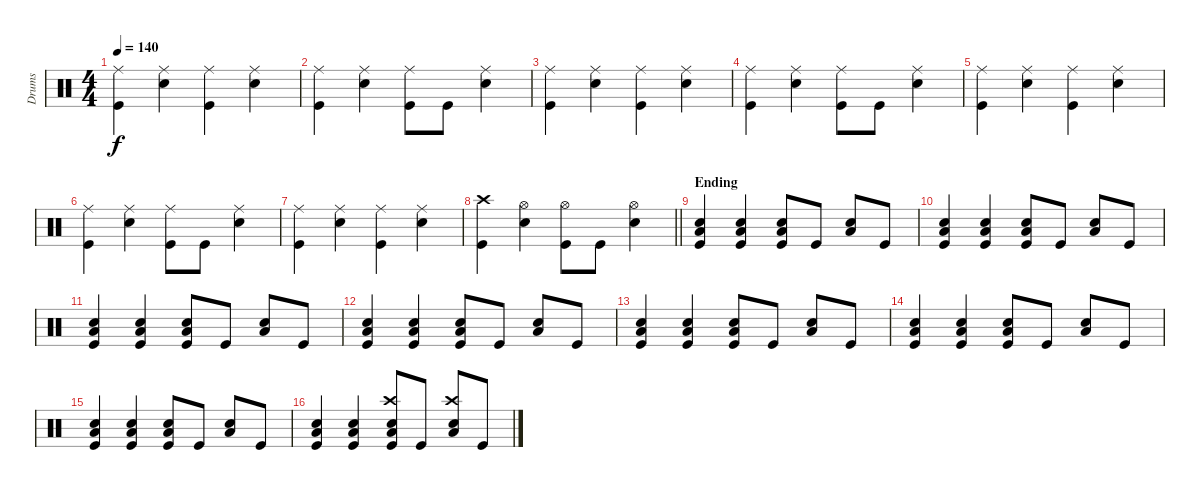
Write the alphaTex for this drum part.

\track ("Drums" "Drums") {instrument percussion}
\staff {score}
\articulation defaults
\ts (4 4)
\tempo 140
\clef neutral
\ks c
("Ride (middle)" "Kick (hit)").4{dy f} ("Ride (middle)" "Snare (hit) 2").4 ("Ride (middle)" "Kick (hit)").4 ("Ride (middle)" "Snare (hit) 2").4 |
("Ride (middle)" "Kick (hit)").4 ("Ride (middle)" "Snare (hit) 2").4 ("Ride (middle)" "Kick (hit)").8 "Kick (hit)".8 ("Ride (middle)" "Snare (hit) 2").4 |
("Ride (middle)" "Kick (hit)").4 ("Ride (middle)" "Snare (hit) 2").4 ("Ride (middle)" "Kick (hit)").4 ("Ride (middle)" "Snare (hit) 2").4 |
("Ride (middle)" "Kick (hit)").4 ("Ride (middle)" "Snare (hit) 2").4 ("Ride (middle)" "Kick (hit)").8 "Kick (hit)".8 ("Ride (middle)" "Snare (hit) 2").4 |
("Ride (middle)" "Kick (hit)").4 ("Ride (middle)" "Snare (hit) 2").4 ("Ride (middle)" "Kick (hit)").4 ("Ride (middle)" "Snare (hit) 2").4 |
("Ride (middle)" "Kick (hit)").4 ("Ride (middle)" "Snare (hit) 2").4 ("Ride (middle)" "Kick (hit)").8 "Kick (hit)".8 ("Ride (middle)" "Snare (hit) 2").4 |
("Ride (middle)" "Kick (hit)").4 ("Ride (middle)" "Snare (hit) 2").4 ("Ride (middle)" "Kick (hit)").4 ("Ride (middle)" "Snare (hit) 2").4 |
\barLineRight lightlight
("Crash high (hit)" "Kick (hit)").4 ("Hi-Hat (open)" "Snare (hit) 2").4 ("Hi-Hat (open)" "Kick (hit)").8 "Kick (hit)".8 ("Hi-Hat (open)" "Snare (hit) 2").4 |
\section ("" "Ending")
("Snare (hit) 2" "Low Tom (hit)" "Kick (hit)").4 ("Snare (hit) 2" "Low Tom (hit)" "Kick (hit)").4 ("Snare (hit) 2" "Low Tom (hit)" "Kick (hit)").8 "Kick (hit)".8 ("Snare (hit) 2" "Low Tom (hit)").8 "Kick (hit)".8 |
("Snare (hit) 2" "Low Tom (hit)" "Kick (hit)").4 ("Snare (hit) 2" "Low Tom (hit)" "Kick (hit)").4 ("Snare (hit) 2" "Low Tom (hit)" "Kick (hit)").8 "Kick (hit)".8 ("Snare (hit) 2" "Low Tom (hit)").8 "Kick (hit)".8 |
("Snare (hit) 2" "Low Tom (hit)" "Kick (hit)").4 ("Snare (hit) 2" "Low Tom (hit)" "Kick (hit)").4 ("Snare (hit) 2" "Low Tom (hit)" "Kick (hit)").8 "Kick (hit)".8 ("Snare (hit) 2" "Low Tom (hit)").8 "Kick (hit)".8 |
("Snare (hit) 2" "Low Tom (hit)" "Kick (hit)").4 ("Snare (hit) 2" "Low Tom (hit)" "Kick (hit)").4 ("Snare (hit) 2" "Low Tom (hit)" "Kick (hit)").8 "Kick (hit)".8 ("Snare (hit) 2" "Low Tom (hit)").8 "Kick (hit)".8 |
("Snare (hit) 2" "Low Tom (hit)" "Kick (hit)").4 ("Snare (hit) 2" "Low Tom (hit)" "Kick (hit)").4 ("Snare (hit) 2" "Low Tom (hit)" "Kick (hit)").8 "Kick (hit)".8 ("Snare (hit) 2" "Low Tom (hit)").8 "Kick (hit)".8 |
("Snare (hit) 2" "Low Tom (hit)" "Kick (hit)").4 ("Snare (hit) 2" "Low Tom (hit)" "Kick (hit)").4 ("Snare (hit) 2" "Low Tom (hit)" "Kick (hit)").8 "Kick (hit)".8 ("Snare (hit) 2" "Low Tom (hit)").8 "Kick (hit)".8 |
("Snare (hit) 2" "Low Tom (hit)" "Kick (hit)").4 ("Snare (hit) 2" "Low Tom (hit)" "Kick (hit)").4 ("Snare (hit) 2" "Low Tom (hit)" "Kick (hit)").8 "Kick (hit)".8 ("Snare (hit) 2" "Low Tom (hit)").8 "Kick (hit)".8 |
("Snare (hit) 2" "Low Tom (hit)" "Kick (hit)").4 ("Snare (hit) 2" "Low Tom (hit)" "Kick (hit)").4 ("Crash high (hit)" "Snare (hit) 2" "Low Tom (hit)" "Kick (hit)").8 "Kick (hit)".8 ("Crash high (hit)" "Snare (hit) 2" "Low Tom (hit)").8 "Kick (hit)".8
